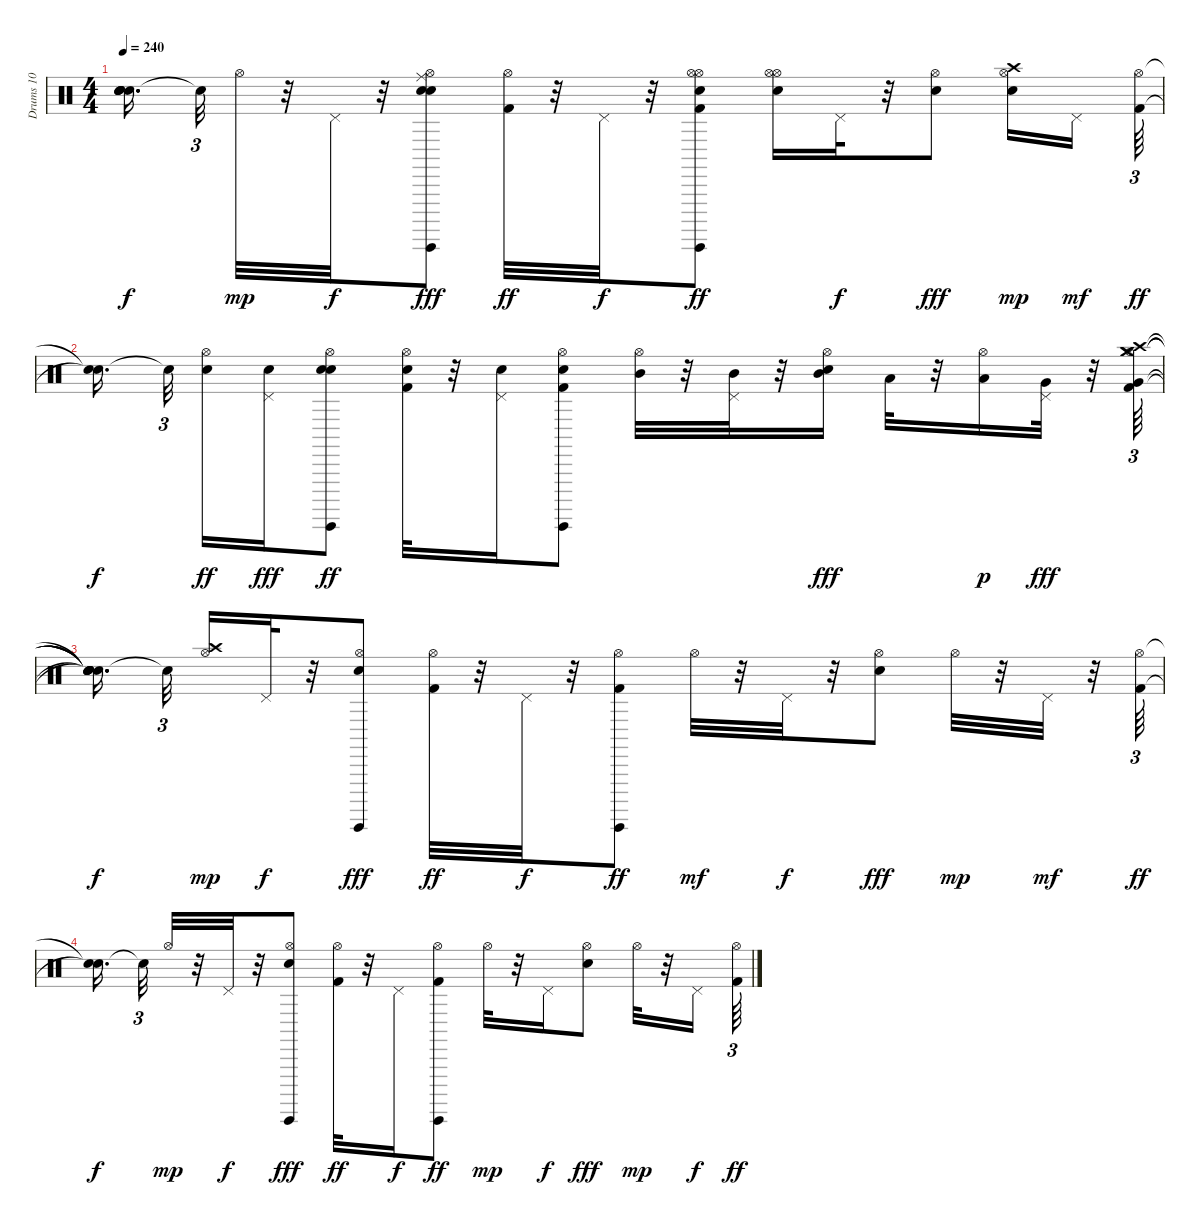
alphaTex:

\track ("Drums 10" "Drums 10") {instrument percussion}
\staff {score}
\articulation defaults
\ts (4 4)
\tempo 240
\clef neutral
\ks c
("Snare (hit)"{t} "Snare (hit)"{t} "Snare (hit)"{t} "Snare (hit)"{t} "Snare (hit)"{t}).16{d dy f beam splitsecondary} "Snare (hit)"{t}.32{tu (3 2)} "Hi-Hat (open)".32{dy mp} r.32 "Pedal Hi-Hat (hit)".32{dy f} r.32 ("Hi-Hat (open)" "Guiro (hit)" "Snare (hit) 2" "Electric Snare (hit)" "Ride (middle)").8{dy fff} ("Hi-Hat (open)" "Kick (hit) 2").32{dy ff} r.32 "Pedal Hi-Hat (hit)".32{dy f} r.32 ("Hi-Hat (open)" "Guiro (hit)" "Kick (hit) 2" "Electric Snare (hit)" "Hi-Hat (open)").8{dy ff} ("Hi-Hat (open)" "Electric Snare (hit)" "Hi-Hat (open)").16 "Pedal Hi-Hat (hit)".32{dy f} r.32 ("Hi-Hat (open)" "Snare (hit) 2").8{dy fff} ("Hi-Hat (open)" "Electric Snare (hit)" "Crash high (hit)").16{dy mp} "Pedal Hi-Hat (hit)".16{dy mf beam splitsecondary} ("Hi-Hat (open)" "Kick (hit) 2").64{tu (3 2) dy ff} |
("Snare (hit)"{t} "Snare (hit)"{t}).16{d dy f beam splitsecondary} "Snare (hit)"{t}.32{tu (3 2) beam splitsecondary} ("Hi-Hat (open)" "Electric Snare (hit)").16{dy ff} ("Pedal Hi-Hat (hit)" "Electric Snare (hit)").16{dy fff} ("Hi-Hat (open)" "Guiro (hit)" "Snare (hit) 2" "Electric Snare (hit)").8{dy ff} ("Hi-Hat (open)" "Kick (hit) 2" "Electric Snare (hit)").32 r.32 ("Pedal Hi-Hat (hit)" "Electric Snare (hit)").16 ("Hi-Hat (open)" "Guiro (hit)" "Kick (hit) 2" "Electric Snare (hit)").8 ("Hi-Hat (open)" "Mid Tom (hit)").32 r.32 ("Pedal Hi-Hat (hit)" "Mid Tom (hit)").32 r.32 ("Hi-Hat (open)" "Snare (hit) 2" "Mid Tom (hit)").16{dy fff} "Low Tom (hit)".32 r.32 ("Hi-Hat (open)" "Low Tom (hit)").16{dy p} ("Pedal Hi-Hat (hit)" "Very Low Tom (hit)").32{dy fff} r.32 ("Hi-Hat (open)" "Kick (hit) 2" "Very Low Tom (hit)" "Crash medium (hit)" "Crash high (hit)" "Crash medium (hit)").64{tu (3 2)} |
("Snare (hit)"{t} "Snare (hit)"{t} "Snare (hit)"{t} "Snare (hit)"{t} "Snare (hit)"{t} "Snare (hit)"{t}).16{d dy f beam splitsecondary} "Snare (hit)"{t}.32{tu (3 2) beam splitsecondary} ("Crash high (hit)" "Hi-Hat (open)").16{dy mp} "Pedal Hi-Hat (hit)".32{dy f} r.32 ("Hi-Hat (open)" "Guiro (hit)" "Snare (hit) 2").8{dy fff} ("Hi-Hat (open)" "Kick (hit) 2").32{dy ff} r.32 "Pedal Hi-Hat (hit)".32{dy f} r.32 ("Hi-Hat (open)" "Guiro (hit)" "Kick (hit) 2").8{dy ff} "Hi-Hat (open)".32{dy mf} r.32 "Pedal Hi-Hat (hit)".32{dy f} r.32 ("Hi-Hat (open)" "Snare (hit) 2").8{dy fff} "Hi-Hat (open)".32{dy mp} r.32 "Pedal Hi-Hat (hit)".32{dy mf} r.32 ("Hi-Hat (open)" "Kick (hit) 2").64{tu (3 2) dy ff} |
("Snare (hit)"{t} "Snare (hit)"{t}).16{d dy f beam splitsecondary} "Snare (hit)"{t}.32{tu (3 2)} "Hi-Hat (open)".32{dy mp} r.32 "Pedal Hi-Hat (hit)".32{dy f} r.32 ("Hi-Hat (open)" "Guiro (hit)" "Snare (hit) 2").8{dy fff} ("Hi-Hat (open)" "Kick (hit) 2").32{dy ff} r.32 "Pedal Hi-Hat (hit)".16{dy f} ("Hi-Hat (open)" "Guiro (hit)" "Kick (hit) 2").8{dy ff} "Hi-Hat (open)".32{dy mp} r.32 "Pedal Hi-Hat (hit)".16{dy f} ("Hi-Hat (open)" "Snare (hit) 2").8{dy fff} "Hi-Hat (open)".32{dy mp} r.32 "Pedal Hi-Hat (hit)".16{dy f} ("Hi-Hat (open)" "Kick (hit) 2").64{tu (3 2) dy ff}
